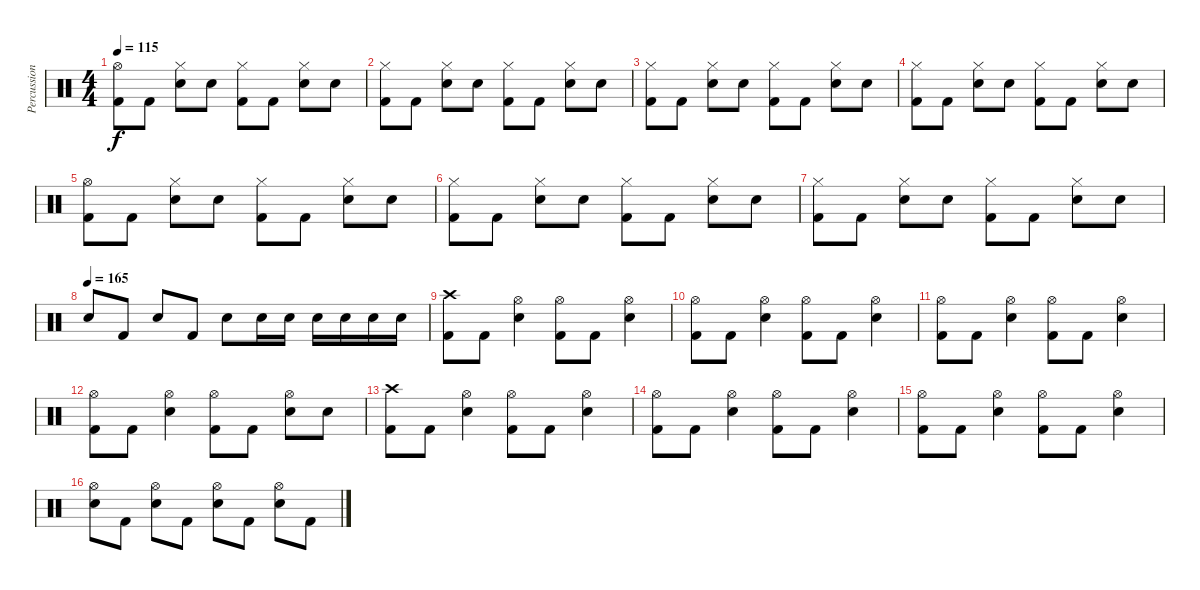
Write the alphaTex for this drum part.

\track ("Percussion" "Percussion") {instrument percussion}
\staff {score}
\articulation defaults
\ts (4 4)
\tempo 115
\clef neutral
\ks c
("Hi-Hat (open)" "Kick (hit) 2").8{dy f} "Kick (hit) 2".8 ("Hi-Hat (closed)" "Snare (hit) 2").8 "Snare (hit) 2".8 ("Hi-Hat (closed)" "Kick (hit) 2").8 "Kick (hit) 2".8 ("Hi-Hat (closed)" "Snare (hit) 2").8 "Snare (hit) 2".8 |
("Hi-Hat (closed)" "Kick (hit) 2").8 "Kick (hit) 2".8 ("Hi-Hat (closed)" "Snare (hit) 2").8 "Snare (hit) 2".8 ("Hi-Hat (closed)" "Kick (hit) 2").8 "Kick (hit) 2".8 ("Hi-Hat (closed)" "Snare (hit) 2").8 "Snare (hit) 2".8 |
("Hi-Hat (closed)" "Kick (hit) 2").8 "Kick (hit) 2".8 ("Hi-Hat (closed)" "Snare (hit) 2").8 "Snare (hit) 2".8 ("Hi-Hat (closed)" "Kick (hit) 2").8 "Kick (hit) 2".8 ("Hi-Hat (closed)" "Snare (hit) 2").8 "Snare (hit) 2".8 |
("Hi-Hat (closed)" "Kick (hit) 2").8 "Kick (hit) 2".8 ("Hi-Hat (closed)" "Snare (hit) 2").8 "Snare (hit) 2".8 ("Hi-Hat (closed)" "Kick (hit) 2").8 "Kick (hit) 2".8 ("Hi-Hat (closed)" "Snare (hit) 2").8 "Snare (hit) 2".8 |
("Hi-Hat (open)" "Kick (hit) 2").8 "Kick (hit) 2".8 ("Hi-Hat (closed)" "Snare (hit) 2").8 "Snare (hit) 2".8 ("Hi-Hat (closed)" "Kick (hit) 2").8 "Kick (hit) 2".8 ("Hi-Hat (closed)" "Snare (hit) 2").8 "Snare (hit) 2".8 |
("Hi-Hat (closed)" "Kick (hit) 2").8 "Kick (hit) 2".8 ("Hi-Hat (closed)" "Snare (hit) 2").8 "Snare (hit) 2".8 ("Hi-Hat (closed)" "Kick (hit) 2").8 "Kick (hit) 2".8 ("Hi-Hat (closed)" "Snare (hit) 2").8 "Snare (hit) 2".8 |
("Hi-Hat (closed)" "Kick (hit) 2").8 "Kick (hit) 2".8 ("Hi-Hat (closed)" "Snare (hit) 2").8 "Snare (hit) 2".8 ("Hi-Hat (closed)" "Kick (hit) 2").8 "Kick (hit) 2".8 ("Hi-Hat (closed)" "Snare (hit) 2").8 "Snare (hit) 2".8 |
\tempo (165)
"Snare (hit) 2".8 "Kick (hit) 2".8 "Snare (hit) 2".8 "Kick (hit) 2".8 "Snare (hit) 2".8 "Snare (hit) 2".16 "Snare (hit) 2".16 "Snare (hit) 2".16 "Snare (hit) 2".16 "Snare (hit) 2".16 "Snare (hit) 2".16 |
("Crash high (hit)" "Kick (hit) 2").8 "Kick (hit) 2".8 ("Hi-Hat (open)" "Snare (hit) 2").4 ("Hi-Hat (open)" "Kick (hit) 2").8 "Kick (hit) 2".8 ("Hi-Hat (open)" "Snare (hit) 2").4 |
("Hi-Hat (open)" "Kick (hit) 2").8 "Kick (hit) 2".8 ("Hi-Hat (open)" "Snare (hit) 2").4 ("Hi-Hat (open)" "Kick (hit) 2").8 "Kick (hit) 2".8 ("Hi-Hat (open)" "Snare (hit) 2").4 |
("Hi-Hat (open)" "Kick (hit) 2").8 "Kick (hit) 2".8 ("Hi-Hat (open)" "Snare (hit) 2").4 ("Hi-Hat (open)" "Kick (hit) 2").8 "Kick (hit) 2".8 ("Hi-Hat (open)" "Snare (hit) 2").4 |
("Hi-Hat (open)" "Kick (hit) 2").8 "Kick (hit) 2".8 ("Hi-Hat (open)" "Snare (hit) 2").4 ("Hi-Hat (open)" "Kick (hit) 2").8 "Kick (hit) 2".8 ("Hi-Hat (open)" "Snare (hit) 2").8 "Snare (hit) 2".8 |
("Crash high (hit)" "Kick (hit) 2").8 "Kick (hit) 2".8 ("Hi-Hat (open)" "Snare (hit) 2").4 ("Hi-Hat (open)" "Kick (hit) 2").8 "Kick (hit) 2".8 ("Hi-Hat (open)" "Snare (hit) 2").4 |
("Hi-Hat (open)" "Kick (hit) 2").8 "Kick (hit) 2".8 ("Hi-Hat (open)" "Snare (hit) 2").4 ("Hi-Hat (open)" "Kick (hit) 2").8 "Kick (hit) 2".8 ("Hi-Hat (open)" "Snare (hit) 2").4 |
("Hi-Hat (open)" "Kick (hit) 2").8 "Kick (hit) 2".8 ("Hi-Hat (open)" "Snare (hit) 2").4 ("Hi-Hat (open)" "Kick (hit) 2").8 "Kick (hit) 2".8 ("Hi-Hat (open)" "Snare (hit) 2").4 |
("Hi-Hat (open)" "Snare (hit) 2").8 "Kick (hit) 2".8 ("Hi-Hat (open)" "Snare (hit) 2").8 "Kick (hit) 2".8 ("Hi-Hat (open)" "Snare (hit) 2").8 "Kick (hit) 2".8 ("Hi-Hat (open)" "Snare (hit) 2").8 "Kick (hit) 2".8
